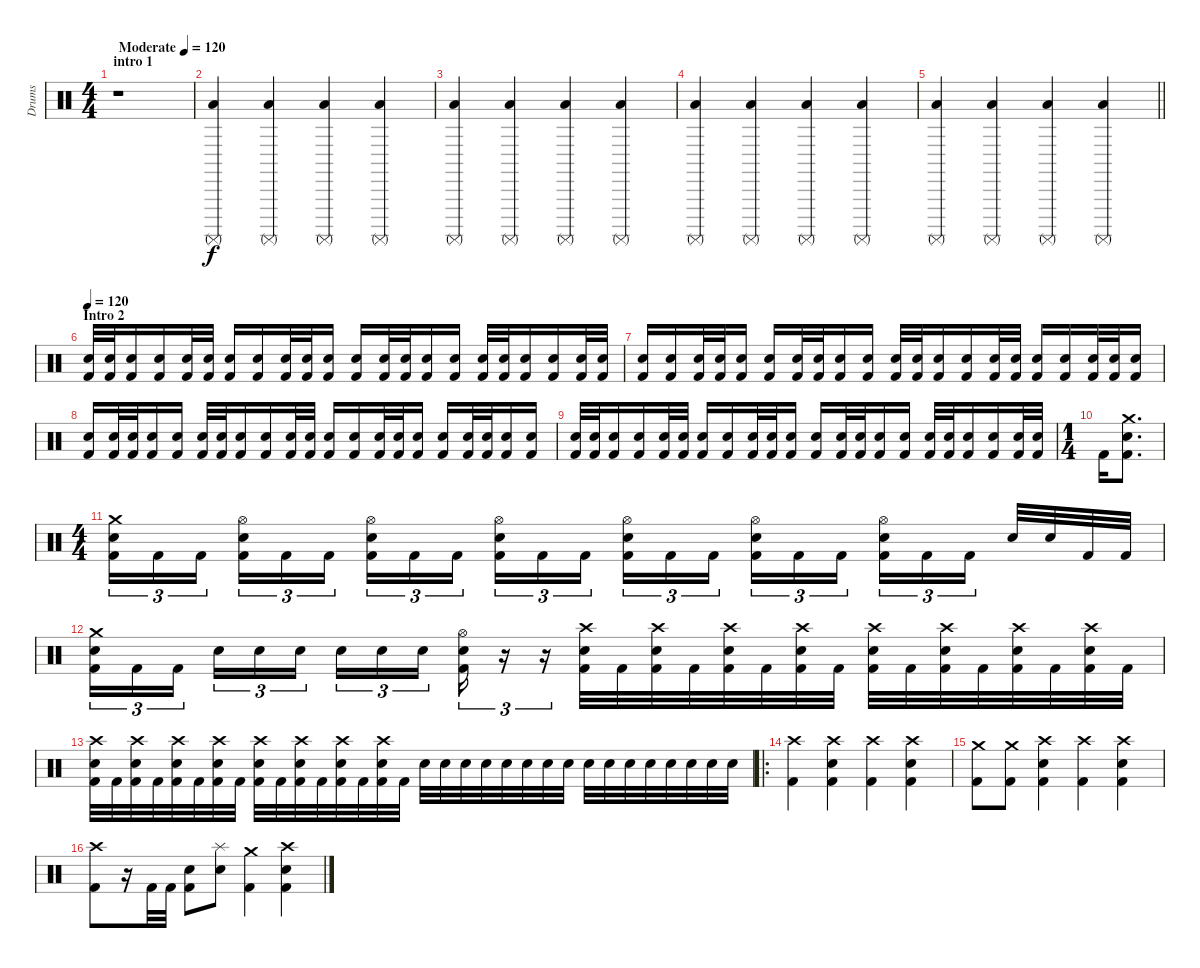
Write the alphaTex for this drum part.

\track ("Drums" "Drums") {instrument percussion}
\staff {score}
\articulation defaults
\ts (4 4)
\section ("" "intro 1")
\tempo (120 "Moderate")
\tempo 110
\tempo (120 "Moderate")
\clef neutral
\ks c
r.1{dy f volume 4} |
("Surdo (mute)" "Low Floor Tom (hit)").4{volume 13} ("Surdo (mute)" "Low Floor Tom (hit)").4 ("Surdo (mute)" "Low Floor Tom (hit)").4 ("Surdo (mute)" "Low Floor Tom (hit)").4 |
("Surdo (mute)" "Low Floor Tom (hit)").4 ("Surdo (mute)" "Low Floor Tom (hit)").4 ("Surdo (mute)" "Low Floor Tom (hit)").4 ("Surdo (mute)" "Low Floor Tom (hit)").4 |
("Surdo (mute)" "Low Floor Tom (hit)").4 ("Surdo (mute)" "Low Floor Tom (hit)").4 ("Surdo (mute)" "Low Floor Tom (hit)").4 ("Surdo (mute)" "Low Floor Tom (hit)").4 |
\barLineRight lightlight
("Surdo (mute)" "Low Floor Tom (hit)").4 ("Surdo (mute)" "Low Floor Tom (hit)").4 ("Surdo (mute)" "Low Floor Tom (hit)").4 ("Surdo (mute)" "Low Floor Tom (hit)").4 |
\section ("" "Intro 2")
\tempo 120
("Electric Snare (hit)" "Kick (hit) 2").32 ("Electric Snare (hit)" "Kick (hit) 2").32 ("Electric Snare (hit)" "Kick (hit) 2").16 ("Electric Snare (hit)" "Kick (hit) 2").16 ("Electric Snare (hit)" "Kick (hit) 2").32 ("Electric Snare (hit)" "Kick (hit) 2").32 ("Electric Snare (hit)" "Kick (hit) 2").16 ("Electric Snare (hit)" "Kick (hit) 2").16 ("Electric Snare (hit)" "Kick (hit) 2").32 ("Electric Snare (hit)" "Kick (hit) 2").32 ("Electric Snare (hit)" "Kick (hit) 2").16 ("Electric Snare (hit)" "Kick (hit) 2").16 ("Electric Snare (hit)" "Kick (hit) 2").32 ("Electric Snare (hit)" "Kick (hit) 2").32 ("Electric Snare (hit)" "Kick (hit) 2").16 ("Electric Snare (hit)" "Kick (hit) 2").16 ("Electric Snare (hit)" "Kick (hit) 2").32 ("Electric Snare (hit)" "Kick (hit) 2").32 ("Electric Snare (hit)" "Kick (hit) 2").16 ("Electric Snare (hit)" "Kick (hit) 2").16 ("Electric Snare (hit)" "Kick (hit) 2").32 ("Electric Snare (hit)" "Kick (hit) 2").32 |
("Electric Snare (hit)" "Kick (hit) 2").16 ("Electric Snare (hit)" "Kick (hit) 2").16 ("Electric Snare (hit)" "Kick (hit) 2").32 ("Electric Snare (hit)" "Kick (hit) 2").32 ("Electric Snare (hit)" "Kick (hit) 2").16 ("Electric Snare (hit)" "Kick (hit) 2").16 ("Electric Snare (hit)" "Kick (hit) 2").32 ("Electric Snare (hit)" "Kick (hit) 2").32 ("Electric Snare (hit)" "Kick (hit) 2").16 ("Electric Snare (hit)" "Kick (hit) 2").16 ("Electric Snare (hit)" "Kick (hit) 2").32 ("Electric Snare (hit)" "Kick (hit) 2").32 ("Electric Snare (hit)" "Kick (hit) 2").16 ("Electric Snare (hit)" "Kick (hit) 2").16 ("Electric Snare (hit)" "Kick (hit) 2").32 ("Electric Snare (hit)" "Kick (hit) 2").32 ("Electric Snare (hit)" "Kick (hit) 2").16 ("Electric Snare (hit)" "Kick (hit) 2").16 ("Electric Snare (hit)" "Kick (hit) 2").32 ("Electric Snare (hit)" "Kick (hit) 2").32 ("Electric Snare (hit)" "Kick (hit) 2").16 |
("Electric Snare (hit)" "Kick (hit) 2").16 ("Electric Snare (hit)" "Kick (hit) 2").32 ("Electric Snare (hit)" "Kick (hit) 2").32 ("Electric Snare (hit)" "Kick (hit) 2").16 ("Electric Snare (hit)" "Kick (hit) 2").16 ("Electric Snare (hit)" "Kick (hit) 2").32 ("Electric Snare (hit)" "Kick (hit) 2").32 ("Electric Snare (hit)" "Kick (hit) 2").16 ("Electric Snare (hit)" "Kick (hit) 2").16 ("Electric Snare (hit)" "Kick (hit) 2").32 ("Electric Snare (hit)" "Kick (hit) 2").32 ("Electric Snare (hit)" "Kick (hit) 2").16 ("Electric Snare (hit)" "Kick (hit) 2").16 ("Electric Snare (hit)" "Kick (hit) 2").32 ("Electric Snare (hit)" "Kick (hit) 2").32 ("Electric Snare (hit)" "Kick (hit) 2").16 ("Electric Snare (hit)" "Kick (hit) 2").16 ("Electric Snare (hit)" "Kick (hit) 2").32 ("Electric Snare (hit)" "Kick (hit) 2").32 ("Electric Snare (hit)" "Kick (hit) 2").16 ("Electric Snare (hit)" "Kick (hit) 2").16 |
("Electric Snare (hit)" "Kick (hit) 2").32 ("Electric Snare (hit)" "Kick (hit) 2").32 ("Electric Snare (hit)" "Kick (hit) 2").16 ("Electric Snare (hit)" "Kick (hit) 2").16 ("Electric Snare (hit)" "Kick (hit) 2").32 ("Electric Snare (hit)" "Kick (hit) 2").32 ("Electric Snare (hit)" "Kick (hit) 2").16 ("Electric Snare (hit)" "Kick (hit) 2").16 ("Electric Snare (hit)" "Kick (hit) 2").32 ("Electric Snare (hit)" "Kick (hit) 2").32 ("Electric Snare (hit)" "Kick (hit) 2").16 ("Electric Snare (hit)" "Kick (hit) 2").16 ("Electric Snare (hit)" "Kick (hit) 2").32 ("Electric Snare (hit)" "Kick (hit) 2").32 ("Electric Snare (hit)" "Kick (hit) 2").16 ("Electric Snare (hit)" "Kick (hit) 2").16 ("Electric Snare (hit)" "Kick (hit) 2").32 ("Electric Snare (hit)" "Kick (hit) 2").32 ("Electric Snare (hit)" "Kick (hit) 2").16 ("Electric Snare (hit)" "Kick (hit) 2").16 ("Electric Snare (hit)" "Kick (hit) 2").32 ("Electric Snare (hit)" "Kick (hit) 2").32 |
\ts (1 4)
"Kick (hit) 2".16 ("Crash medium (hit)" "Electric Snare (hit)" "Kick (hit) 2").8{d} |
\ts (4 4)
("Crash medium (hit)" "Electric Snare (hit)" "Kick (hit) 2").16{tu (3 2)} "Kick (hit) 2".16{tu (3 2)} "Kick (hit) 2".16{tu (3 2) beam splitsecondary} ("Hi-Hat (open)" "Electric Snare (hit)" "Kick (hit) 2").16{tu (3 2)} "Kick (hit) 2".16{tu (3 2)} "Kick (hit) 2".16{tu (3 2)} ("Hi-Hat (open)" "Electric Snare (hit)" "Kick (hit) 2").16{tu (3 2)} "Kick (hit) 2".16{tu (3 2)} "Kick (hit) 2".16{tu (3 2) beam splitsecondary} ("Hi-Hat (open)" "Electric Snare (hit)" "Kick (hit) 2").16{tu (3 2)} "Kick (hit) 2".16{tu (3 2)} "Kick (hit) 2".16{tu (3 2)} ("Hi-Hat (open)" "Electric Snare (hit)" "Kick (hit) 2").16{tu (3 2)} "Kick (hit) 2".16{tu (3 2)} "Kick (hit) 2".16{tu (3 2) beam splitsecondary} ("Hi-Hat (open)" "Electric Snare (hit)" "Kick (hit) 2").16{tu (3 2)} "Kick (hit) 2".16{tu (3 2)} "Kick (hit) 2".16{tu (3 2)} ("Hi-Hat (open)" "Electric Snare (hit)" "Kick (hit) 2").16{tu (3 2)} "Kick (hit) 2".16{tu (3 2)} "Kick (hit) 2".16{tu (3 2) beam splitsecondary} "Electric Snare (hit)".32 "Electric Snare (hit)".32 "Kick (hit) 2".32 "Kick (hit) 2".32 |
("Crash medium (hit)" "Electric Snare (hit)" "Kick (hit) 2").16{tu (3 2)} "Kick (hit) 2".16{tu (3 2)} "Kick (hit) 2".16{tu (3 2) beam splitsecondary} "Electric Snare (hit)".16{tu (3 2)} "Electric Snare (hit)".16{tu (3 2)} "Electric Snare (hit)".16{tu (3 2)} "Electric Snare (hit)".16{tu (3 2)} "Electric Snare (hit)".16{tu (3 2)} "Electric Snare (hit)".16{tu (3 2) beam splitsecondary} ("Hi-Hat (open)" "Electric Snare (hit)" "Kick (hit) 2").16{tu (3 2)} r.16{tu (3 2)} r.16{tu (3 2)} ("Crash high (hit)" "Electric Snare (hit)" "Kick (hit) 2").32 "Kick (hit) 2".32 ("Crash high (hit)" "Electric Snare (hit)" "Kick (hit) 2").32 "Kick (hit) 2".32 ("Crash high (hit)" "Electric Snare (hit)" "Kick (hit) 2").32 "Kick (hit) 2".32 ("Crash high (hit)" "Electric Snare (hit)" "Kick (hit) 2").32 "Kick (hit) 2".32 ("Crash high (hit)" "Electric Snare (hit)" "Kick (hit) 2").32 "Kick (hit) 2".32 ("Crash high (hit)" "Electric Snare (hit)" "Kick (hit) 2").32 "Kick (hit) 2".32 ("Crash high (hit)" "Electric Snare (hit)" "Kick (hit) 2").32 "Kick (hit) 2".32 ("Crash high (hit)" "Electric Snare (hit)" "Kick (hit) 2").32 "Kick (hit) 2".32 |
("Crash high (hit)" "Electric Snare (hit)" "Kick (hit) 2").32 "Kick (hit) 2".32 ("Crash high (hit)" "Electric Snare (hit)" "Kick (hit) 2").32 "Kick (hit) 2".32 ("Crash high (hit)" "Electric Snare (hit)" "Kick (hit) 2").32 "Kick (hit) 2".32 ("Crash high (hit)" "Electric Snare (hit)" "Kick (hit) 2").32 "Kick (hit) 2".32 ("Crash high (hit)" "Electric Snare (hit)" "Kick (hit) 2").32 "Kick (hit) 2".32 ("Crash high (hit)" "Electric Snare (hit)" "Kick (hit) 2").32 "Kick (hit) 2".32 ("Crash high (hit)" "Electric Snare (hit)" "Kick (hit) 2").32 "Kick (hit) 2".32 ("Crash high (hit)" "Electric Snare (hit)" "Kick (hit) 2").32 "Kick (hit) 2".32 "Electric Snare (hit)".32 "Electric Snare (hit)".32 "Electric Snare (hit)".32 "Electric Snare (hit)".32 "Electric Snare (hit)".32 "Electric Snare (hit)".32 "Electric Snare (hit)".32 "Electric Snare (hit)".32 "Electric Snare (hit)".32 "Electric Snare (hit)".32 "Electric Snare (hit)".32 "Electric Snare (hit)".32 "Electric Snare (hit)".32 "Electric Snare (hit)".32 "Electric Snare (hit)".32 "Electric Snare (hit)".32 |
\ro
("Crash high (hit)" "Kick (hit) 2").4 ("Crash high (hit)" "Electric Snare (hit)" "Kick (hit) 2").4 ("Crash high (hit)" "Kick (hit) 2").4 ("Crash high (hit)" "Electric Snare (hit)" "Kick (hit) 2").4 |
("Crash medium (hit)" "Kick (hit) 2").8 ("Crash medium (hit)" "Kick (hit) 2").8 ("Crash high (hit)" "Electric Snare (hit)" "Kick (hit) 2").4 ("Crash high (hit)" "Kick (hit) 2").4 ("Crash high (hit)" "Electric Snare (hit)" "Kick (hit) 2").4 |
("Crash high (hit)" "Kick (hit) 2").8 r.16 "Kick (hit) 2".32 "Kick (hit) 2".32 ("Electric Snare (hit)" "Kick (hit) 2").8 ("Splash (hit)" "Electric Snare (hit)").8 ("Crash medium (hit)" "Kick (hit) 2").4 ("Crash high (hit)" "Electric Snare (hit)" "Kick (hit) 2").4
